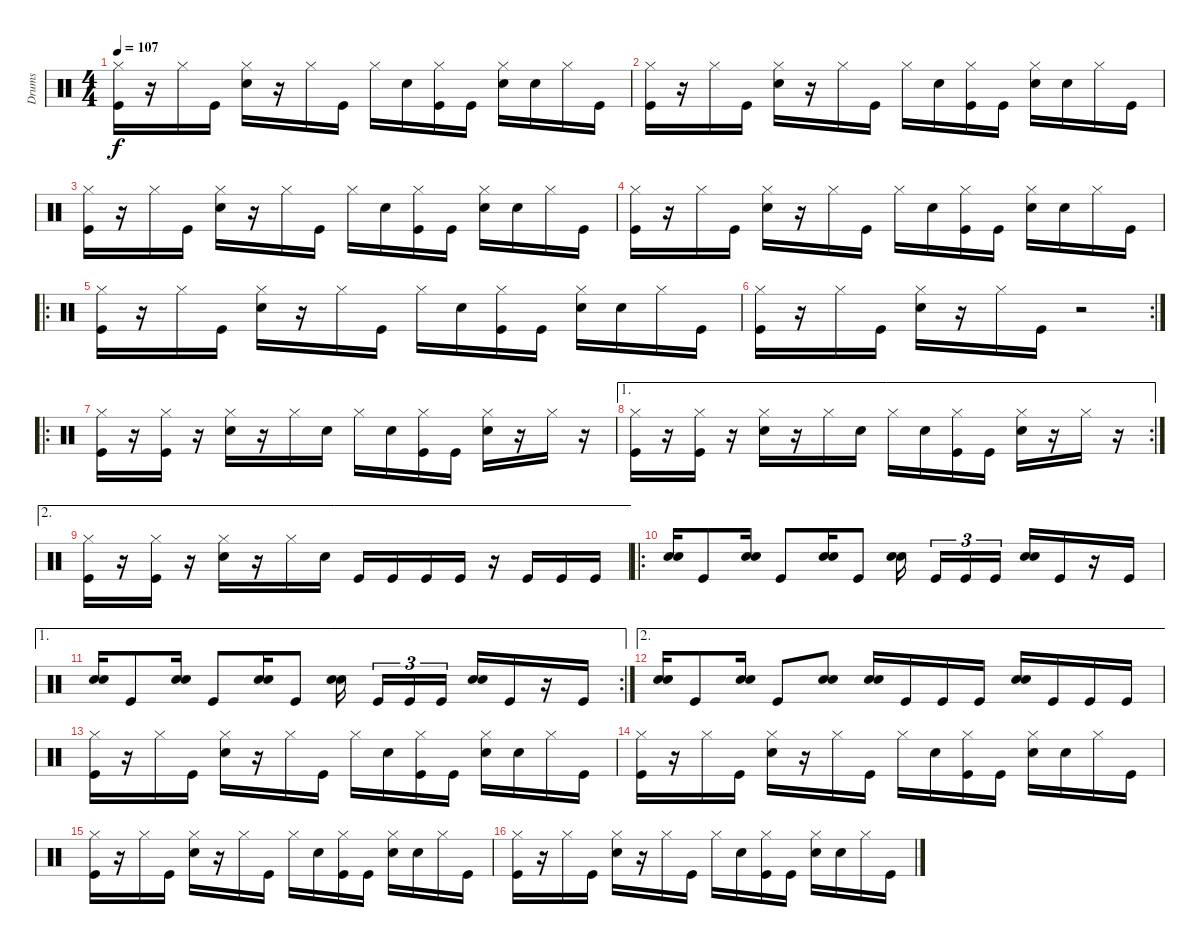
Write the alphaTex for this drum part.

\track ("Drums" "Drums") {instrument percussion}
\staff {score}
\articulation defaults
\ts (4 4)
\tempo 107
\clef neutral
\ks c
("Hi-Hat (closed)" "Kick (hit)").16{dy f} r.16 "Hi-Hat (closed)".16 "Kick (hit)".16 ("Hi-Hat (closed)" "Snare (hit) 2").16 r.16 "Hi-Hat (closed)".16 "Kick (hit)".16 "Hi-Hat (closed)".16 "Snare (hit) 2".16 ("Hi-Hat (closed)" "Kick (hit)").16 "Kick (hit)".16 ("Hi-Hat (closed)" "Snare (hit) 2").16 "Snare (hit) 2".16 "Hi-Hat (closed)".16 "Kick (hit)".16 |
("Hi-Hat (closed)" "Kick (hit)").16 r.16 "Hi-Hat (closed)".16 "Kick (hit)".16 ("Hi-Hat (closed)" "Snare (hit) 2").16 r.16 "Hi-Hat (closed)".16 "Kick (hit)".16 "Hi-Hat (closed)".16 "Snare (hit) 2".16 ("Hi-Hat (closed)" "Kick (hit)").16 "Kick (hit)".16 ("Hi-Hat (closed)" "Snare (hit) 2").16 "Snare (hit) 2".16 "Hi-Hat (closed)".16 "Kick (hit)".16 |
("Hi-Hat (closed)" "Kick (hit)").16 r.16 "Hi-Hat (closed)".16 "Kick (hit)".16 ("Hi-Hat (closed)" "Snare (hit) 2").16 r.16 "Hi-Hat (closed)".16 "Kick (hit)".16 "Hi-Hat (closed)".16 "Snare (hit) 2".16 ("Hi-Hat (closed)" "Kick (hit)").16 "Kick (hit)".16 ("Hi-Hat (closed)" "Snare (hit) 2").16 "Snare (hit) 2".16 "Hi-Hat (closed)".16 "Kick (hit)".16 |
("Hi-Hat (closed)" "Kick (hit)").16 r.16 "Hi-Hat (closed)".16 "Kick (hit)".16 ("Hi-Hat (closed)" "Snare (hit) 2").16 r.16 "Hi-Hat (closed)".16 "Kick (hit)".16 "Hi-Hat (closed)".16 "Snare (hit) 2".16 ("Hi-Hat (closed)" "Kick (hit)").16 "Kick (hit)".16 ("Hi-Hat (closed)" "Snare (hit) 2").16 "Snare (hit) 2".16 "Hi-Hat (closed)".16 "Kick (hit)".16 |
\ro
("Hi-Hat (closed)" "Kick (hit)").16 r.16 "Hi-Hat (closed)".16 "Kick (hit)".16 ("Hi-Hat (closed)" "Snare (hit) 2").16 r.16 "Hi-Hat (closed)".16 "Kick (hit)".16 "Hi-Hat (closed)".16 "Snare (hit) 2".16 ("Hi-Hat (closed)" "Kick (hit)").16 "Kick (hit)".16 ("Hi-Hat (closed)" "Snare (hit) 2").16 "Snare (hit) 2".16 "Hi-Hat (closed)".16 "Kick (hit)".16 |
\rc 2
("Hi-Hat (closed)" "Kick (hit)").16 r.16 "Hi-Hat (closed)".16 "Kick (hit)".16 ("Hi-Hat (closed)" "Snare (hit) 2").16 r.16 "Hi-Hat (closed)".16 "Kick (hit)".16 r.2 |
\ro
("Hi-Hat (closed)" "Kick (hit)").16 r.16 ("Hi-Hat (closed)" "Kick (hit)").16 r.16 ("Hi-Hat (closed)" "Snare (hit) 2").16 r.16 "Hi-Hat (closed)".16 "Snare (hit) 2".16 "Hi-Hat (closed)".16 "Snare (hit) 2".16 ("Hi-Hat (closed)" "Kick (hit)").16 "Kick (hit)".16 ("Hi-Hat (closed)" "Snare (hit) 2").16 r.16 "Hi-Hat (closed)".16 r.16 |
\ae 1
\rc 2
("Hi-Hat (closed)" "Kick (hit)").16 r.16 ("Hi-Hat (closed)" "Kick (hit)").16 r.16 ("Hi-Hat (closed)" "Snare (hit) 2").16 r.16 "Hi-Hat (closed)".16 "Snare (hit) 2".16 "Hi-Hat (closed)".16 "Snare (hit) 2".16 ("Hi-Hat (closed)" "Kick (hit)").16 "Kick (hit)".16 ("Hi-Hat (closed)" "Snare (hit) 2").16 r.16 "Hi-Hat (closed)".16 r.16 |
\ae 2
("Hi-Hat (closed)" "Kick (hit)").16 r.16 ("Hi-Hat (closed)" "Kick (hit)").16 r.16 ("Hi-Hat (closed)" "Snare (hit) 2").16 r.16 "Hi-Hat (closed)".16 "Snare (hit) 2".16 "Kick (hit)".16 "Kick (hit)".16 "Kick (hit)".16 "Kick (hit)".16 r.16 "Kick (hit)".16 "Kick (hit)".16 "Kick (hit)".16 |
\ro
("Snare (hit) 2" "Snare (hit) 2").16 "Kick (hit)".8 ("Snare (hit) 2" "Snare (hit) 2").16 "Kick (hit)".8 ("Snare (hit) 2" "Snare (hit) 2").16 "Kick (hit)".8 ("Snare (hit) 2" "Snare (hit) 2").16 "Kick (hit)".16{tu (3 2)} "Kick (hit)".16{tu (3 2)} "Kick (hit)".16{tu (3 2)} ("Snare (hit) 2" "Snare (hit) 2").16 "Kick (hit)".16 r.16 "Kick (hit)".16 |
\ae 1
\rc 2
("Snare (hit) 2" "Snare (hit) 2").16 "Kick (hit)".8 ("Snare (hit) 2" "Snare (hit) 2").16 "Kick (hit)".8 ("Snare (hit) 2" "Snare (hit) 2").16 "Kick (hit)".8 ("Snare (hit) 2" "Snare (hit) 2").16 "Kick (hit)".16{tu (3 2)} "Kick (hit)".16{tu (3 2)} "Kick (hit)".16{tu (3 2)} ("Snare (hit) 2" "Snare (hit) 2").16 "Kick (hit)".16 r.16 "Kick (hit)".16 |
\ae 2
("Snare (hit) 2" "Snare (hit) 2").16 "Kick (hit)".8 ("Snare (hit) 2" "Snare (hit) 2").16 "Kick (hit)".8 ("Snare (hit) 2" "Snare (hit) 2").8 ("Snare (hit) 2" "Snare (hit) 2").16 "Kick (hit)".16 "Kick (hit)".16 "Kick (hit)".16 ("Snare (hit) 2" "Snare (hit) 2").16 "Kick (hit)".16 "Kick (hit)".16 "Kick (hit)".16 |
("Hi-Hat (closed)" "Kick (hit)").16 r.16 "Hi-Hat (closed)".16 "Kick (hit)".16 ("Hi-Hat (closed)" "Snare (hit) 2").16 r.16 "Hi-Hat (closed)".16 "Kick (hit)".16 "Hi-Hat (closed)".16 "Snare (hit) 2".16 ("Hi-Hat (closed)" "Kick (hit)").16 "Kick (hit)".16 ("Hi-Hat (closed)" "Snare (hit) 2").16 "Snare (hit) 2".16 "Hi-Hat (closed)".16 "Kick (hit)".16 |
("Hi-Hat (closed)" "Kick (hit)").16 r.16 "Hi-Hat (closed)".16 "Kick (hit)".16 ("Hi-Hat (closed)" "Snare (hit) 2").16 r.16 "Hi-Hat (closed)".16 "Kick (hit)".16 "Hi-Hat (closed)".16 "Snare (hit) 2".16 ("Hi-Hat (closed)" "Kick (hit)").16 "Kick (hit)".16 ("Hi-Hat (closed)" "Snare (hit) 2").16 "Snare (hit) 2".16 "Hi-Hat (closed)".16 "Kick (hit)".16 |
("Hi-Hat (closed)" "Kick (hit)").16 r.16 "Hi-Hat (closed)".16 "Kick (hit)".16 ("Hi-Hat (closed)" "Snare (hit) 2").16 r.16 "Hi-Hat (closed)".16 "Kick (hit)".16 "Hi-Hat (closed)".16 "Snare (hit) 2".16 ("Hi-Hat (closed)" "Kick (hit)").16 "Kick (hit)".16 ("Hi-Hat (closed)" "Snare (hit) 2").16 "Snare (hit) 2".16 "Hi-Hat (closed)".16 "Kick (hit)".16 |
("Hi-Hat (closed)" "Kick (hit)").16 r.16 "Hi-Hat (closed)".16 "Kick (hit)".16 ("Hi-Hat (closed)" "Snare (hit) 2").16 r.16 "Hi-Hat (closed)".16 "Kick (hit)".16 "Hi-Hat (closed)".16 "Snare (hit) 2".16 ("Hi-Hat (closed)" "Kick (hit)").16 "Kick (hit)".16 ("Hi-Hat (closed)" "Snare (hit) 2").16 "Snare (hit) 2".16 "Hi-Hat (closed)".16 "Kick (hit)".16
